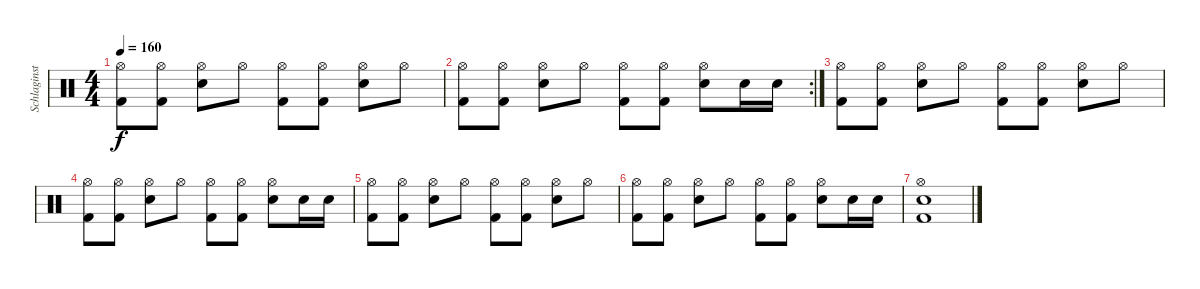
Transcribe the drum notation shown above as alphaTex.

\track ("Schlaginstrumente - Auswahl" "Schlaginst") {instrument percussion}
\staff {score}
\articulation defaults
\ts (4 4)
\tempo 160
\clef neutral
\ks c
("Hi-Hat (open)" "Kick (hit) 2").8{dy f} ("Hi-Hat (open)" "Kick (hit) 2").8 ("Hi-Hat (open)" "Electric Snare (hit)").8 "Hi-Hat (open)".8 ("Hi-Hat (open)" "Kick (hit) 2").8 ("Hi-Hat (open)" "Kick (hit) 2").8 ("Hi-Hat (open)" "Electric Snare (hit)").8 "Hi-Hat (open)".8 |
\rc 2
("Hi-Hat (open)" "Kick (hit) 2").8 ("Hi-Hat (open)" "Kick (hit) 2").8 ("Hi-Hat (open)" "Electric Snare (hit)").8 "Hi-Hat (open)".8 ("Hi-Hat (open)" "Kick (hit) 2").8 ("Hi-Hat (open)" "Kick (hit) 2").8 ("Hi-Hat (open)" "Electric Snare (hit)").8 "Electric Snare (hit)".16 "Electric Snare (hit)".16 |
("Hi-Hat (open)" "Kick (hit) 2").8 ("Hi-Hat (open)" "Kick (hit) 2").8 ("Hi-Hat (open)" "Electric Snare (hit)").8 "Hi-Hat (open)".8 ("Hi-Hat (open)" "Kick (hit) 2").8 ("Hi-Hat (open)" "Kick (hit) 2").8 ("Hi-Hat (open)" "Electric Snare (hit)").8 "Hi-Hat (open)".8 |
("Hi-Hat (open)" "Kick (hit) 2").8 ("Hi-Hat (open)" "Kick (hit) 2").8 ("Hi-Hat (open)" "Electric Snare (hit)").8 "Hi-Hat (open)".8 ("Hi-Hat (open)" "Kick (hit) 2").8 ("Hi-Hat (open)" "Kick (hit) 2").8 ("Hi-Hat (open)" "Electric Snare (hit)").8 "Electric Snare (hit)".16 "Electric Snare (hit)".16 |
("Hi-Hat (open)" "Kick (hit) 2").8 ("Hi-Hat (open)" "Kick (hit) 2").8 ("Hi-Hat (open)" "Electric Snare (hit)").8 "Hi-Hat (open)".8 ("Hi-Hat (open)" "Kick (hit) 2").8 ("Hi-Hat (open)" "Kick (hit) 2").8 ("Hi-Hat (open)" "Electric Snare (hit)").8 "Hi-Hat (open)".8 |
("Hi-Hat (open)" "Kick (hit) 2").8 ("Hi-Hat (open)" "Kick (hit) 2").8 ("Hi-Hat (open)" "Electric Snare (hit)").8 "Hi-Hat (open)".8 ("Hi-Hat (open)" "Kick (hit) 2").8 ("Hi-Hat (open)" "Kick (hit) 2").8 ("Hi-Hat (open)" "Electric Snare (hit)").8 "Electric Snare (hit)".16 "Electric Snare (hit)".16 |
("Hi-Hat (open)" "Electric Snare (hit)" "Kick (hit) 2").1
